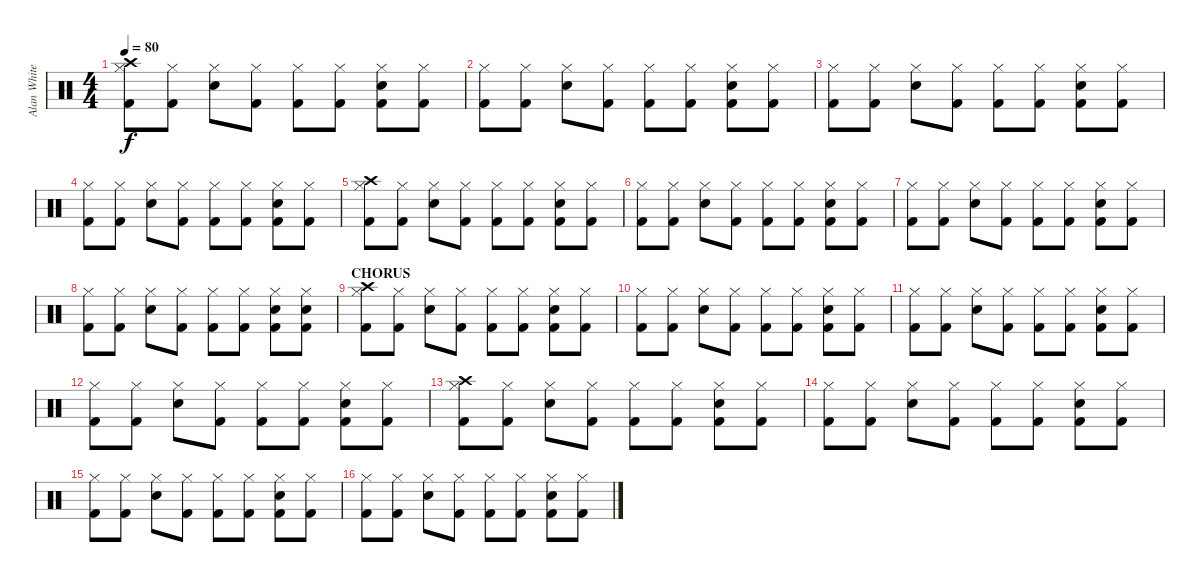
\track ("Alan White" "Alan White") {instrument percussion}
\staff {score}
\articulation defaults
\ts (4 4)
\tempo 80
\clef neutral
\ks c
("Hi-Hat (closed)" "Crash high (hit)" "Kick (hit) 2").8{dy f} ("Hi-Hat (closed)" "Kick (hit) 2").8 ("Hi-Hat (closed)" "Snare (hit) 2").8 ("Hi-Hat (closed)" "Kick (hit) 2").8 ("Hi-Hat (closed)" "Kick (hit) 2").8 ("Hi-Hat (closed)" "Kick (hit) 2").8 ("Hi-Hat (closed)" "Snare (hit) 2" "Kick (hit) 2").8 ("Hi-Hat (closed)" "Kick (hit) 2").8 |
("Hi-Hat (closed)" "Kick (hit) 2").8 ("Hi-Hat (closed)" "Kick (hit) 2").8 ("Hi-Hat (closed)" "Snare (hit) 2").8 ("Hi-Hat (closed)" "Kick (hit) 2").8 ("Hi-Hat (closed)" "Kick (hit) 2").8 ("Hi-Hat (closed)" "Kick (hit) 2").8 ("Hi-Hat (closed)" "Snare (hit) 2" "Kick (hit) 2").8 ("Hi-Hat (closed)" "Kick (hit) 2").8 |
("Hi-Hat (closed)" "Kick (hit) 2").8 ("Hi-Hat (closed)" "Kick (hit) 2").8 ("Hi-Hat (closed)" "Snare (hit) 2").8 ("Hi-Hat (closed)" "Kick (hit) 2").8 ("Hi-Hat (closed)" "Kick (hit) 2").8 ("Hi-Hat (closed)" "Kick (hit) 2").8 ("Hi-Hat (closed)" "Snare (hit) 2" "Kick (hit) 2").8 ("Hi-Hat (closed)" "Kick (hit) 2").8 |
("Hi-Hat (closed)" "Kick (hit) 2").8 ("Hi-Hat (closed)" "Kick (hit) 2").8 ("Hi-Hat (closed)" "Snare (hit) 2").8 ("Hi-Hat (closed)" "Kick (hit) 2").8 ("Hi-Hat (closed)" "Kick (hit) 2").8 ("Hi-Hat (closed)" "Kick (hit) 2").8 ("Hi-Hat (closed)" "Snare (hit) 2" "Kick (hit) 2").8 ("Hi-Hat (closed)" "Kick (hit) 2").8 |
("Hi-Hat (closed)" "Crash high (hit)" "Kick (hit) 2").8 ("Hi-Hat (closed)" "Kick (hit) 2").8 ("Hi-Hat (closed)" "Snare (hit) 2").8 ("Hi-Hat (closed)" "Kick (hit) 2").8 ("Hi-Hat (closed)" "Kick (hit) 2").8 ("Hi-Hat (closed)" "Kick (hit) 2").8 ("Hi-Hat (closed)" "Snare (hit) 2" "Kick (hit) 2").8 ("Hi-Hat (closed)" "Kick (hit) 2").8 |
("Hi-Hat (closed)" "Kick (hit) 2").8 ("Hi-Hat (closed)" "Kick (hit) 2").8 ("Hi-Hat (closed)" "Snare (hit) 2").8 ("Hi-Hat (closed)" "Kick (hit) 2").8 ("Hi-Hat (closed)" "Kick (hit) 2").8 ("Hi-Hat (closed)" "Kick (hit) 2").8 ("Hi-Hat (closed)" "Snare (hit) 2" "Kick (hit) 2").8 ("Hi-Hat (closed)" "Kick (hit) 2").8 |
("Hi-Hat (closed)" "Kick (hit) 2").8 ("Hi-Hat (closed)" "Kick (hit) 2").8 ("Hi-Hat (closed)" "Snare (hit) 2").8 ("Hi-Hat (closed)" "Kick (hit) 2").8 ("Hi-Hat (closed)" "Kick (hit) 2").8 ("Hi-Hat (closed)" "Kick (hit) 2").8 ("Hi-Hat (closed)" "Snare (hit) 2" "Kick (hit) 2").8 ("Hi-Hat (closed)" "Kick (hit) 2").8 |
("Hi-Hat (closed)" "Kick (hit) 2").8 ("Hi-Hat (closed)" "Kick (hit) 2").8 ("Hi-Hat (closed)" "Snare (hit) 2").8 ("Hi-Hat (closed)" "Kick (hit) 2").8 ("Hi-Hat (closed)" "Kick (hit) 2").8 ("Hi-Hat (closed)" "Kick (hit) 2").8 ("Hi-Hat (closed)" "Snare (hit) 2" "Kick (hit) 2").8 ("Hi-Hat (closed)" "Snare (hit) 2" "Kick (hit) 2").8 |
\section ("" "CHORUS")
("Hi-Hat (closed)" "Crash high (hit)" "Kick (hit) 2").8 ("Hi-Hat (closed)" "Kick (hit) 2").8 ("Hi-Hat (closed)" "Snare (hit) 2").8 ("Hi-Hat (closed)" "Kick (hit) 2").8 ("Hi-Hat (closed)" "Kick (hit) 2").8 ("Hi-Hat (closed)" "Kick (hit) 2").8 ("Hi-Hat (closed)" "Snare (hit) 2" "Kick (hit) 2").8 ("Hi-Hat (closed)" "Kick (hit) 2").8 |
("Hi-Hat (closed)" "Kick (hit) 2").8 ("Hi-Hat (closed)" "Kick (hit) 2").8 ("Hi-Hat (closed)" "Snare (hit) 2").8 ("Hi-Hat (closed)" "Kick (hit) 2").8 ("Hi-Hat (closed)" "Kick (hit) 2").8 ("Hi-Hat (closed)" "Kick (hit) 2").8 ("Hi-Hat (closed)" "Snare (hit) 2" "Kick (hit) 2").8 ("Hi-Hat (closed)" "Kick (hit) 2").8 |
("Hi-Hat (closed)" "Kick (hit) 2").8 ("Hi-Hat (closed)" "Kick (hit) 2").8 ("Hi-Hat (closed)" "Snare (hit) 2").8 ("Hi-Hat (closed)" "Kick (hit) 2").8 ("Hi-Hat (closed)" "Kick (hit) 2").8 ("Hi-Hat (closed)" "Kick (hit) 2").8 ("Hi-Hat (closed)" "Snare (hit) 2" "Kick (hit) 2").8 ("Hi-Hat (closed)" "Kick (hit) 2").8 |
("Hi-Hat (closed)" "Kick (hit) 2").8 ("Hi-Hat (closed)" "Kick (hit) 2").8 ("Hi-Hat (closed)" "Snare (hit) 2").8 ("Hi-Hat (closed)" "Kick (hit) 2").8 ("Hi-Hat (closed)" "Kick (hit) 2").8 ("Hi-Hat (closed)" "Kick (hit) 2").8 ("Hi-Hat (closed)" "Snare (hit) 2" "Kick (hit) 2").8 ("Hi-Hat (closed)" "Kick (hit) 2").8 |
("Hi-Hat (closed)" "Crash high (hit)" "Kick (hit) 2").8 ("Hi-Hat (closed)" "Kick (hit) 2").8 ("Hi-Hat (closed)" "Snare (hit) 2").8 ("Hi-Hat (closed)" "Kick (hit) 2").8 ("Hi-Hat (closed)" "Kick (hit) 2").8 ("Hi-Hat (closed)" "Kick (hit) 2").8 ("Hi-Hat (closed)" "Snare (hit) 2" "Kick (hit) 2").8 ("Hi-Hat (closed)" "Kick (hit) 2").8 |
("Hi-Hat (closed)" "Kick (hit) 2").8 ("Hi-Hat (closed)" "Kick (hit) 2").8 ("Hi-Hat (closed)" "Snare (hit) 2").8 ("Hi-Hat (closed)" "Kick (hit) 2").8 ("Hi-Hat (closed)" "Kick (hit) 2").8 ("Hi-Hat (closed)" "Kick (hit) 2").8 ("Hi-Hat (closed)" "Snare (hit) 2" "Kick (hit) 2").8 ("Hi-Hat (closed)" "Kick (hit) 2").8 |
("Hi-Hat (closed)" "Kick (hit) 2").8 ("Hi-Hat (closed)" "Kick (hit) 2").8 ("Hi-Hat (closed)" "Snare (hit) 2").8 ("Hi-Hat (closed)" "Kick (hit) 2").8 ("Hi-Hat (closed)" "Kick (hit) 2").8 ("Hi-Hat (closed)" "Kick (hit) 2").8 ("Hi-Hat (closed)" "Snare (hit) 2" "Kick (hit) 2").8 ("Hi-Hat (closed)" "Kick (hit) 2").8 |
("Hi-Hat (closed)" "Kick (hit) 2").8 ("Hi-Hat (closed)" "Kick (hit) 2").8 ("Hi-Hat (closed)" "Snare (hit) 2").8 ("Hi-Hat (closed)" "Kick (hit) 2").8 ("Hi-Hat (closed)" "Kick (hit) 2").8 ("Hi-Hat (closed)" "Kick (hit) 2").8 ("Hi-Hat (closed)" "Snare (hit) 2" "Kick (hit) 2").8 ("Hi-Hat (closed)" "Kick (hit) 2").8
